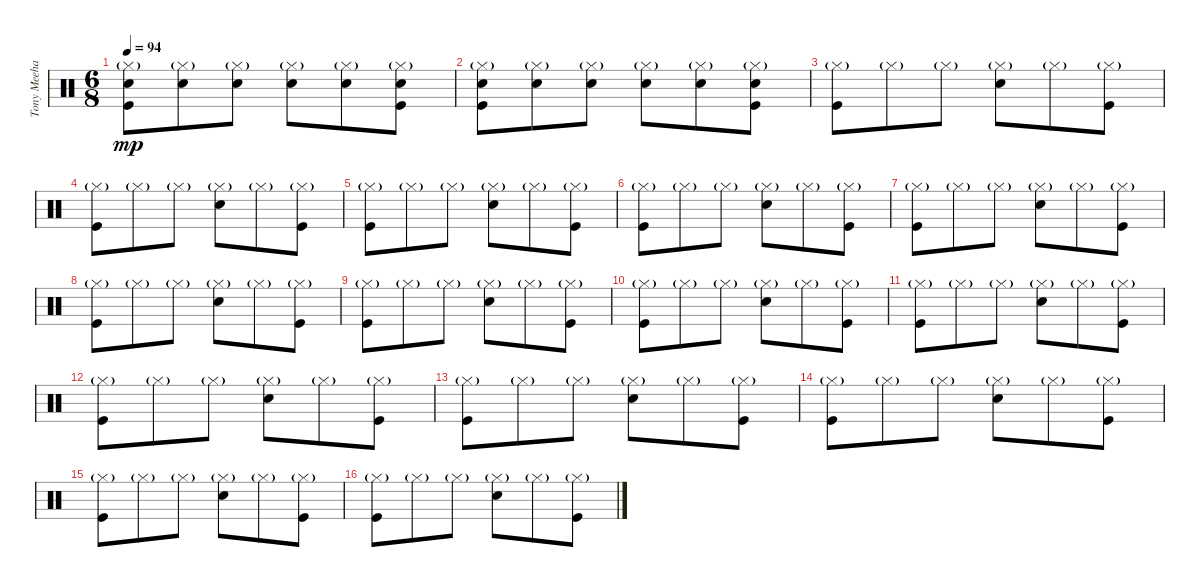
\track ("Tony Meehan (drums)" "Tony Meeha") {instrument percussion}
\staff {score}
\articulation defaults
\ts (6 8)
\tempo 94
\clef neutral
\ks c
("Kick (hit)" "Electric Snare (hit)" "Hi-Hat (closed)"{g}).8{dy mp} ("Electric Snare (hit)" "Hi-Hat (closed)"{g}).8 ("Electric Snare (hit)" "Hi-Hat (closed)"{g}).8 ("Electric Snare (hit)" "Hi-Hat (closed)"{g}).8 ("Electric Snare (hit)" "Hi-Hat (closed)"{g}).8 ("Kick (hit)" "Electric Snare (hit)" "Hi-Hat (closed)"{g}).8 |
("Kick (hit)" "Electric Snare (hit)" "Hi-Hat (closed)"{g}).8 ("Electric Snare (hit)" "Hi-Hat (closed)"{g}).8 ("Electric Snare (hit)" "Hi-Hat (closed)"{g}).8 ("Electric Snare (hit)" "Hi-Hat (closed)"{g}).8 ("Electric Snare (hit)" "Hi-Hat (closed)"{g}).8 ("Kick (hit)" "Electric Snare (hit)" "Hi-Hat (closed)"{g}).8 |
("Kick (hit)" "Hi-Hat (closed)"{g}).8 "Hi-Hat (closed)"{g}.8 "Hi-Hat (closed)"{g}.8 ("Electric Snare (hit)" "Hi-Hat (closed)"{g}).8 "Hi-Hat (closed)"{g}.8 ("Kick (hit)" "Hi-Hat (closed)"{g}).8 |
("Kick (hit)" "Hi-Hat (closed)"{g}).8 "Hi-Hat (closed)"{g}.8 "Hi-Hat (closed)"{g}.8 ("Electric Snare (hit)" "Hi-Hat (closed)"{g}).8 "Hi-Hat (closed)"{g}.8 ("Kick (hit)" "Hi-Hat (closed)"{g}).8 |
("Kick (hit)" "Hi-Hat (closed)"{g}).8 "Hi-Hat (closed)"{g}.8 "Hi-Hat (closed)"{g}.8 ("Electric Snare (hit)" "Hi-Hat (closed)"{g}).8 "Hi-Hat (closed)"{g}.8 ("Kick (hit)" "Hi-Hat (closed)"{g}).8 |
("Kick (hit)" "Hi-Hat (closed)"{g}).8 "Hi-Hat (closed)"{g}.8 "Hi-Hat (closed)"{g}.8 ("Electric Snare (hit)" "Hi-Hat (closed)"{g}).8 "Hi-Hat (closed)"{g}.8 ("Kick (hit)" "Hi-Hat (closed)"{g}).8 |
("Kick (hit)" "Hi-Hat (closed)"{g}).8 "Hi-Hat (closed)"{g}.8 "Hi-Hat (closed)"{g}.8 ("Electric Snare (hit)" "Hi-Hat (closed)"{g}).8 "Hi-Hat (closed)"{g}.8 ("Kick (hit)" "Hi-Hat (closed)"{g}).8 |
("Kick (hit)" "Hi-Hat (closed)"{g}).8 "Hi-Hat (closed)"{g}.8 "Hi-Hat (closed)"{g}.8 ("Electric Snare (hit)" "Hi-Hat (closed)"{g}).8 "Hi-Hat (closed)"{g}.8 ("Kick (hit)" "Hi-Hat (closed)"{g}).8 |
("Kick (hit)" "Hi-Hat (closed)"{g}).8 "Hi-Hat (closed)"{g}.8 "Hi-Hat (closed)"{g}.8 ("Electric Snare (hit)" "Hi-Hat (closed)"{g}).8 "Hi-Hat (closed)"{g}.8 ("Kick (hit)" "Hi-Hat (closed)"{g}).8 |
("Kick (hit)" "Hi-Hat (closed)"{g}).8 "Hi-Hat (closed)"{g}.8 "Hi-Hat (closed)"{g}.8 ("Electric Snare (hit)" "Hi-Hat (closed)"{g}).8 "Hi-Hat (closed)"{g}.8 ("Kick (hit)" "Hi-Hat (closed)"{g}).8 |
("Kick (hit)" "Hi-Hat (closed)"{g}).8 "Hi-Hat (closed)"{g}.8 "Hi-Hat (closed)"{g}.8 ("Electric Snare (hit)" "Hi-Hat (closed)"{g}).8 "Hi-Hat (closed)"{g}.8 ("Kick (hit)" "Hi-Hat (closed)"{g}).8 |
("Kick (hit)" "Hi-Hat (closed)"{g}).8 "Hi-Hat (closed)"{g}.8 "Hi-Hat (closed)"{g}.8 ("Electric Snare (hit)" "Hi-Hat (closed)"{g}).8 "Hi-Hat (closed)"{g}.8 ("Kick (hit)" "Hi-Hat (closed)"{g}).8 |
("Kick (hit)" "Hi-Hat (closed)"{g}).8 "Hi-Hat (closed)"{g}.8 "Hi-Hat (closed)"{g}.8 ("Electric Snare (hit)" "Hi-Hat (closed)"{g}).8 "Hi-Hat (closed)"{g}.8 ("Kick (hit)" "Hi-Hat (closed)"{g}).8 |
("Kick (hit)" "Hi-Hat (closed)"{g}).8 "Hi-Hat (closed)"{g}.8 "Hi-Hat (closed)"{g}.8 ("Electric Snare (hit)" "Hi-Hat (closed)"{g}).8 "Hi-Hat (closed)"{g}.8 ("Kick (hit)" "Hi-Hat (closed)"{g}).8 |
("Kick (hit)" "Hi-Hat (closed)"{g}).8 "Hi-Hat (closed)"{g}.8 "Hi-Hat (closed)"{g}.8 ("Electric Snare (hit)" "Hi-Hat (closed)"{g}).8 "Hi-Hat (closed)"{g}.8 ("Kick (hit)" "Hi-Hat (closed)"{g}).8 |
("Kick (hit)" "Hi-Hat (closed)"{g}).8 "Hi-Hat (closed)"{g}.8 "Hi-Hat (closed)"{g}.8 ("Electric Snare (hit)" "Hi-Hat (closed)"{g}).8 "Hi-Hat (closed)"{g}.8 ("Kick (hit)" "Hi-Hat (closed)"{g}).8
